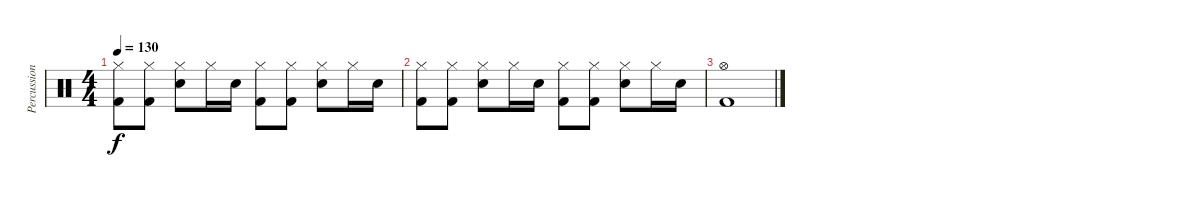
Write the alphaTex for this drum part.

\track ("Percussions" "Percussion") {instrument percussion}
\staff {score}
\articulation defaults
\ts (4 4)
\tempo 130
\clef neutral
\ks c
("Hi-Hat (closed)" "Kick (hit) 2").8{dy f} ("Hi-Hat (closed)" "Kick (hit) 2").8 ("Hi-Hat (closed)" "Electric Snare (hit)").8 "Hi-Hat (closed)".16 "Electric Snare (hit)".16 ("Hi-Hat (closed)" "Kick (hit) 2").8 ("Hi-Hat (closed)" "Kick (hit) 2").8 ("Hi-Hat (closed)" "Electric Snare (hit)").8 "Hi-Hat (closed)".16 "Electric Snare (hit)".16 |
("Hi-Hat (closed)" "Kick (hit) 2").8 ("Hi-Hat (closed)" "Kick (hit) 2").8 ("Hi-Hat (closed)" "Electric Snare (hit)").8 "Hi-Hat (closed)".16 "Electric Snare (hit)".16 ("Hi-Hat (closed)" "Kick (hit) 2").8 ("Hi-Hat (closed)" "Kick (hit) 2").8 ("Hi-Hat (closed)" "Electric Snare (hit)").8 "Hi-Hat (closed)".16 "Electric Snare (hit)".16 |
("Hi-Hat (open)" "Kick (hit) 2").1
